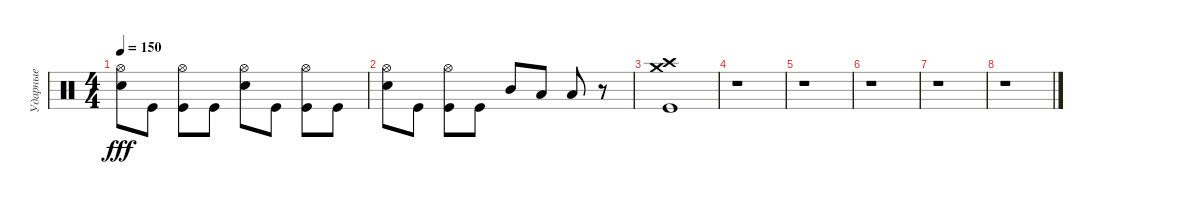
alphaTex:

\track ("Ударные" "Ударные") {instrument percussion}
\staff {score}
\articulation defaults
\ts (4 4)
\tempo 150
\clef neutral
\ks c
("Hi-Hat (open)" "Electric Snare (hit)").8{dy fff} "Kick (hit)".8 ("Hi-Hat (open)" "Kick (hit)").8 "Kick (hit)".8 ("Hi-Hat (open)" "Electric Snare (hit)").8 "Kick (hit)".8 ("Hi-Hat (open)" "Kick (hit)").8 "Kick (hit)".8 |
("Hi-Hat (open)" "Electric Snare (hit)").8 "Kick (hit)".8 ("Hi-Hat (open)" "Kick (hit)").8 "Kick (hit)".8 "Mid Tom (hit)".8 "Low Tom (hit)".8 "Low Tom (hit)".8 r.8 |
("Crash medium (hit)" "Crash high (hit)" "Kick (hit)").1 |
r.1 |
r.1 |
r.1 |
r.1 |
r.1
